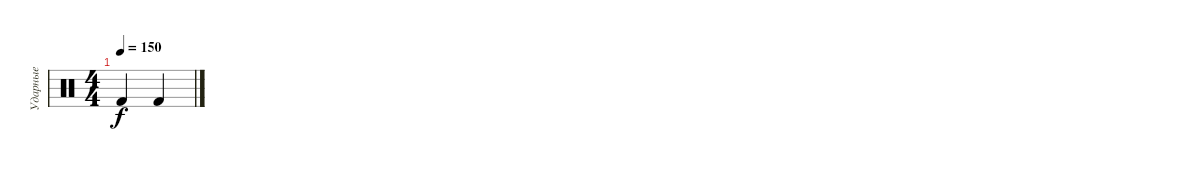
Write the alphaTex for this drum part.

\track ("Ударные" "Ударные") {instrument percussion}
\staff {score}
\articulation defaults
\ts (4 4)
\tempo 150
\clef neutral
\ks c "Kick (hit) 2".4{dy f} "Kick (hit) 2".4
